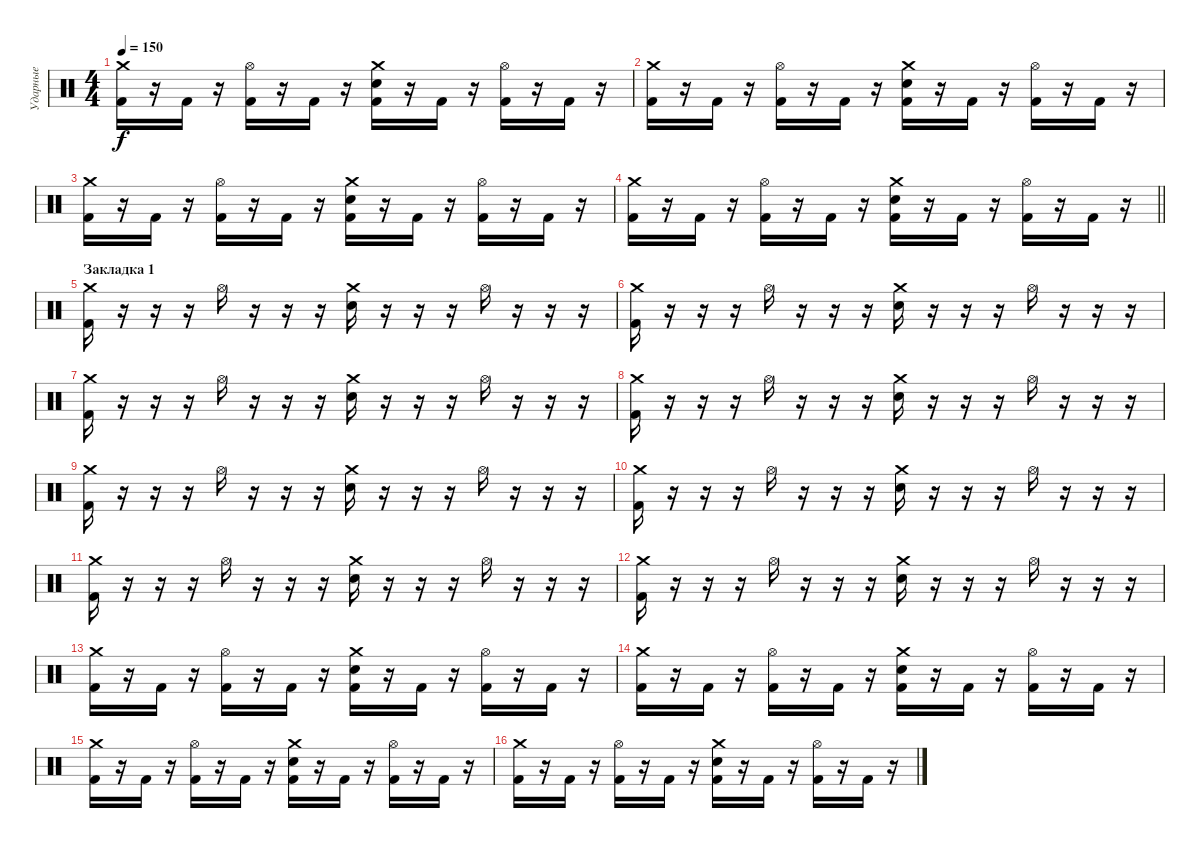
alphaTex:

\track ("Ударные" "Ударные") {instrument percussion}
\staff {score}
\articulation defaults
\ts (4 4)
\tempo 150
\clef neutral
\ks c
("Crash medium (hit)" "Kick (hit) 2").16{dy f} r.16 "Kick (hit) 2".16 r.16 ("Hi-Hat (open)" "Kick (hit) 2").16 r.16 "Kick (hit) 2".16 r.16 ("Crash medium (hit)" "Electric Snare (hit)" "Kick (hit) 2").16 r.16 "Kick (hit) 2".16 r.16 ("Hi-Hat (open)" "Kick (hit) 2").16 r.16 "Kick (hit) 2".16 r.16 |
("Crash medium (hit)" "Kick (hit) 2").16 r.16 "Kick (hit) 2".16 r.16 ("Hi-Hat (open)" "Kick (hit) 2").16 r.16 "Kick (hit) 2".16 r.16 ("Crash medium (hit)" "Electric Snare (hit)" "Kick (hit) 2").16 r.16 "Kick (hit) 2".16 r.16 ("Hi-Hat (open)" "Kick (hit) 2").16 r.16 "Kick (hit) 2".16 r.16 |
("Crash medium (hit)" "Kick (hit) 2").16 r.16 "Kick (hit) 2".16 r.16 ("Hi-Hat (open)" "Kick (hit) 2").16 r.16 "Kick (hit) 2".16 r.16 ("Crash medium (hit)" "Electric Snare (hit)" "Kick (hit) 2").16 r.16 "Kick (hit) 2".16 r.16 ("Hi-Hat (open)" "Kick (hit) 2").16 r.16 "Kick (hit) 2".16 r.16 |
\barLineRight lightlight
("Crash medium (hit)" "Kick (hit) 2").16 r.16 "Kick (hit) 2".16 r.16 ("Hi-Hat (open)" "Kick (hit) 2").16 r.16 "Kick (hit) 2".16 r.16 ("Crash medium (hit)" "Electric Snare (hit)" "Kick (hit) 2").16 r.16 "Kick (hit) 2".16 r.16 ("Hi-Hat (open)" "Kick (hit) 2").16 r.16 "Kick (hit) 2".16 r.16 |
\section ("" "Закладка 1")
("Crash medium (hit)" "Kick (hit) 2").16 r.16 r.16 r.16 "Hi-Hat (open)".16 r.16 r.16 r.16 ("Crash medium (hit)" "Electric Snare (hit)").16 r.16 r.16 r.16 "Hi-Hat (open)".16 r.16 r.16 r.16 |
("Crash medium (hit)" "Kick (hit) 2").16 r.16 r.16 r.16 "Hi-Hat (open)".16 r.16 r.16 r.16 ("Crash medium (hit)" "Electric Snare (hit)").16 r.16 r.16 r.16 "Hi-Hat (open)".16 r.16 r.16 r.16 |
("Crash medium (hit)" "Kick (hit) 2").16 r.16 r.16 r.16 "Hi-Hat (open)".16 r.16 r.16 r.16 ("Crash medium (hit)" "Electric Snare (hit)").16 r.16 r.16 r.16 "Hi-Hat (open)".16 r.16 r.16 r.16 |
("Crash medium (hit)" "Kick (hit) 2").16 r.16 r.16 r.16 "Hi-Hat (open)".16 r.16 r.16 r.16 ("Crash medium (hit)" "Electric Snare (hit)").16 r.16 r.16 r.16 "Hi-Hat (open)".16 r.16 r.16 r.16 |
("Crash medium (hit)" "Kick (hit) 2").16 r.16 r.16 r.16 "Hi-Hat (open)".16 r.16 r.16 r.16 ("Crash medium (hit)" "Electric Snare (hit)").16 r.16 r.16 r.16 "Hi-Hat (open)".16 r.16 r.16 r.16 |
("Crash medium (hit)" "Kick (hit) 2").16 r.16 r.16 r.16 "Hi-Hat (open)".16 r.16 r.16 r.16 ("Crash medium (hit)" "Electric Snare (hit)").16 r.16 r.16 r.16 "Hi-Hat (open)".16 r.16 r.16 r.16 |
("Crash medium (hit)" "Kick (hit) 2").16 r.16 r.16 r.16 "Hi-Hat (open)".16 r.16 r.16 r.16 ("Crash medium (hit)" "Electric Snare (hit)").16 r.16 r.16 r.16 "Hi-Hat (open)".16 r.16 r.16 r.16 |
("Crash medium (hit)" "Kick (hit) 2").16 r.16 r.16 r.16 "Hi-Hat (open)".16 r.16 r.16 r.16 ("Crash medium (hit)" "Electric Snare (hit)").16 r.16 r.16 r.16 "Hi-Hat (open)".16 r.16 r.16 r.16 |
("Crash medium (hit)" "Kick (hit) 2").16 r.16 "Kick (hit) 2".16 r.16 ("Hi-Hat (open)" "Kick (hit) 2").16 r.16 "Kick (hit) 2".16 r.16 ("Crash medium (hit)" "Electric Snare (hit)" "Kick (hit) 2").16 r.16 "Kick (hit) 2".16 r.16 ("Hi-Hat (open)" "Kick (hit) 2").16 r.16 "Kick (hit) 2".16 r.16 |
("Crash medium (hit)" "Kick (hit) 2").16 r.16 "Kick (hit) 2".16 r.16 ("Hi-Hat (open)" "Kick (hit) 2").16 r.16 "Kick (hit) 2".16 r.16 ("Crash medium (hit)" "Electric Snare (hit)" "Kick (hit) 2").16 r.16 "Kick (hit) 2".16 r.16 ("Hi-Hat (open)" "Kick (hit) 2").16 r.16 "Kick (hit) 2".16 r.16 |
("Crash medium (hit)" "Kick (hit) 2").16 r.16 "Kick (hit) 2".16 r.16 ("Hi-Hat (open)" "Kick (hit) 2").16 r.16 "Kick (hit) 2".16 r.16 ("Crash medium (hit)" "Electric Snare (hit)" "Kick (hit) 2").16 r.16 "Kick (hit) 2".16 r.16 ("Hi-Hat (open)" "Kick (hit) 2").16 r.16 "Kick (hit) 2".16 r.16 |
("Crash medium (hit)" "Kick (hit) 2").16 r.16 "Kick (hit) 2".16 r.16 ("Hi-Hat (open)" "Kick (hit) 2").16 r.16 "Kick (hit) 2".16 r.16 ("Crash medium (hit)" "Electric Snare (hit)" "Kick (hit) 2").16 r.16 "Kick (hit) 2".16 r.16 ("Hi-Hat (open)" "Kick (hit) 2").16 r.16 "Kick (hit) 2".16 r.16
